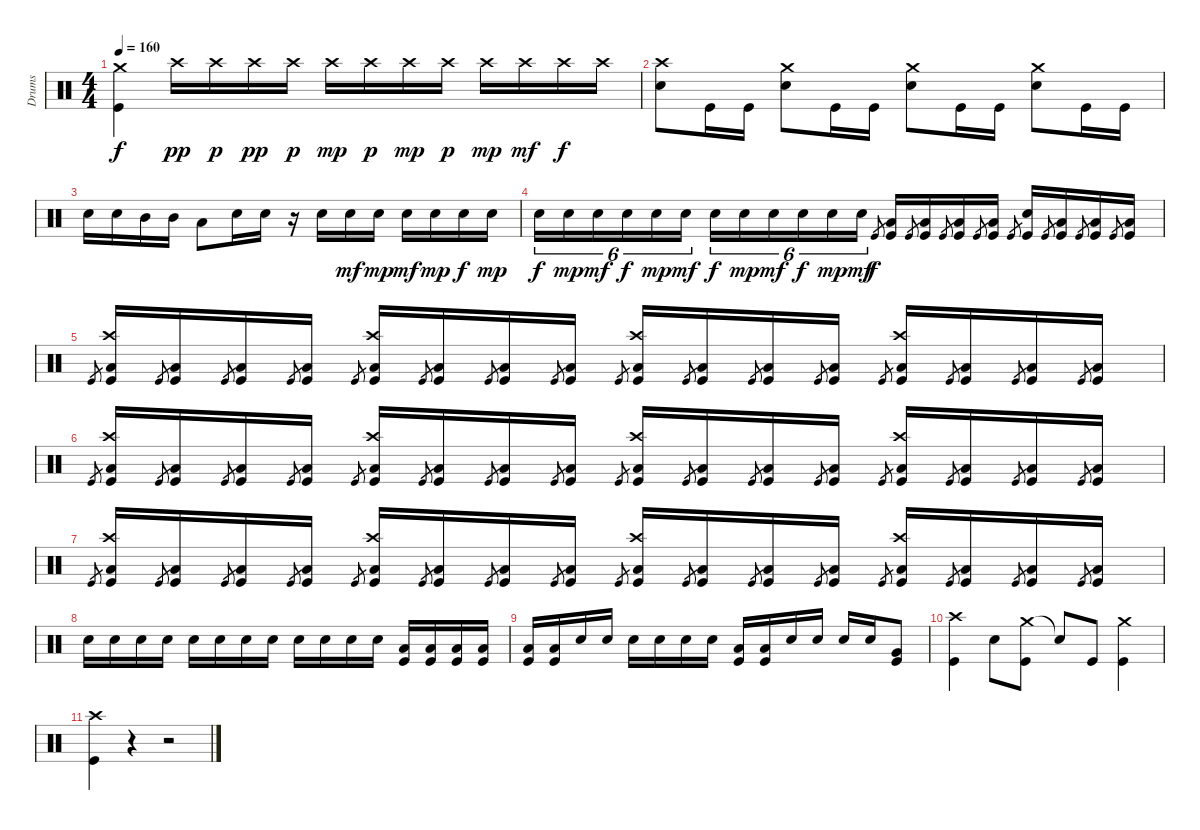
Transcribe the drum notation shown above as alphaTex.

\track ("Drums" "Drums") {instrument percussion}
\staff {score}
\articulation defaults
\ts (4 4)
\tempo 160
\clef neutral
\ks c
("Crash medium (hit)" "Kick (hit)").4{dy f} "Crash high (hit)".16{dy pp} "Crash high (hit)".16{dy p} "Crash high (hit)".16{dy pp} "Crash high (hit)".16{dy p} "Crash high (hit)".16{dy mp} "Crash high (hit)".16{dy p} "Crash high (hit)".16{dy mp} "Crash high (hit)".16{dy p} "Crash high (hit)".16{dy mp} "Crash high (hit)".16{dy mf} "Crash high (hit)".16{dy f} "Crash high (hit)".16 |
("Crash high (hit)" "Electric Snare (hit)").8 "Kick (hit)".16 "Kick (hit)".16 ("Crash medium (hit)" "Electric Snare (hit)").8 "Kick (hit)".16 "Kick (hit)".16 ("Crash medium (hit)" "Electric Snare (hit)").8 "Kick (hit)".16 "Kick (hit)".16 ("Crash medium (hit)" "Electric Snare (hit)").8 "Kick (hit)".16 "Kick (hit)".16 |
"Electric Snare (hit)".16 "Electric Snare (hit)".16 "Mid Tom (hit)".16 "Mid Tom (hit)".16 "Low Tom (hit)".8 "Electric Snare (hit)".16 "Electric Snare (hit)".16 r.16 "Electric Snare (hit)".16 "Electric Snare (hit)".16{dy mf} "Electric Snare (hit)".16{dy mp} "Electric Snare (hit)".16{dy mf} "Electric Snare (hit)".16{dy mp} "Electric Snare (hit)".16{dy f} "Electric Snare (hit)".16{dy mp} |
"Electric Snare (hit)".16{tu (6 4) dy f} "Electric Snare (hit)".16{tu (6 4) dy mp} "Electric Snare (hit)".16{tu (6 4) dy mf} "Electric Snare (hit)".16{tu (6 4) dy f} "Electric Snare (hit)".16{tu (6 4) dy mp} "Electric Snare (hit)".16{tu (6 4) dy mf} "Electric Snare (hit)".16{tu (6 4) dy f} "Electric Snare (hit)".16{tu (6 4) dy mp} "Electric Snare (hit)".16{tu (6 4) dy mf} "Electric Snare (hit)".16{tu (6 4) dy f} "Electric Snare (hit)".16{tu (6 4) dy mp} "Electric Snare (hit)".16{tu (6 4) dy mf} "Kick (hit)".8{gr dy f} ("Low Tom (hit)" "Kick (hit)").16 "Kick (hit)".8{gr} ("Low Tom (hit)" "Kick (hit)").16 "Kick (hit)".8{gr} ("Low Tom (hit)" "Kick (hit)").16 "Kick (hit)".8{gr} ("Low Tom (hit)" "Kick (hit)").16 "Kick (hit)".8{gr} ("Electric Snare (hit)" "Kick (hit)").16 "Kick (hit)".8{gr} ("Low Tom (hit)" "Kick (hit)").16 "Kick (hit)".8{gr} ("Low Tom (hit)" "Kick (hit)").16 "Kick (hit)".8{gr} ("Low Tom (hit)" "Kick (hit)").16 |
"Kick (hit)".8{gr} ("Crash high (hit)" "Low Tom (hit)" "Kick (hit)").16 "Kick (hit)".8{gr} ("Low Tom (hit)" "Kick (hit)").16 "Kick (hit)".8{gr} ("Low Tom (hit)" "Kick (hit)").16 "Kick (hit)".8{gr} ("Low Tom (hit)" "Kick (hit)").16 "Kick (hit)".8{gr} ("Crash high (hit)" "Low Tom (hit)" "Kick (hit)").16 "Kick (hit)".8{gr} ("Low Tom (hit)" "Kick (hit)").16 "Kick (hit)".8{gr} ("Low Tom (hit)" "Kick (hit)").16 "Kick (hit)".8{gr} ("Low Tom (hit)" "Kick (hit)").16 "Kick (hit)".8{gr} ("Crash high (hit)" "Low Tom (hit)" "Kick (hit)").16 "Kick (hit)".8{gr} ("Low Tom (hit)" "Kick (hit)").16 "Kick (hit)".8{gr} ("Low Tom (hit)" "Kick (hit)").16 "Kick (hit)".8{gr} ("Low Tom (hit)" "Kick (hit)").16 "Kick (hit)".8{gr} ("Crash high (hit)" "Low Tom (hit)" "Kick (hit)").16 "Kick (hit)".8{gr} ("Low Tom (hit)" "Kick (hit)").16 "Kick (hit)".8{gr} ("Low Tom (hit)" "Kick (hit)").16 "Kick (hit)".8{gr} ("Low Tom (hit)" "Kick (hit)").16 |
"Kick (hit)".8{gr} ("Crash high (hit)" "Low Tom (hit)" "Kick (hit)").16 "Kick (hit)".8{gr} ("Low Tom (hit)" "Kick (hit)").16 "Kick (hit)".8{gr} ("Low Tom (hit)" "Kick (hit)").16 "Kick (hit)".8{gr} ("Low Tom (hit)" "Kick (hit)").16 "Kick (hit)".8{gr} ("Crash high (hit)" "Low Tom (hit)" "Kick (hit)").16 "Kick (hit)".8{gr} ("Low Tom (hit)" "Kick (hit)").16 "Kick (hit)".8{gr} ("Low Tom (hit)" "Kick (hit)").16 "Kick (hit)".8{gr} ("Low Tom (hit)" "Kick (hit)").16 "Kick (hit)".8{gr} ("Crash high (hit)" "Low Tom (hit)" "Kick (hit)").16 "Kick (hit)".8{gr} ("Low Tom (hit)" "Kick (hit)").16 "Kick (hit)".8{gr} ("Low Tom (hit)" "Kick (hit)").16 "Kick (hit)".8{gr} ("Low Tom (hit)" "Kick (hit)").16 "Kick (hit)".8{gr} ("Crash high (hit)" "Low Tom (hit)" "Kick (hit)").16 "Kick (hit)".8{gr} ("Low Tom (hit)" "Kick (hit)").16 "Kick (hit)".8{gr} ("Low Tom (hit)" "Kick (hit)").16 "Kick (hit)".8{gr} ("Low Tom (hit)" "Kick (hit)").16 |
"Kick (hit)".8{gr} ("Crash high (hit)" "Low Tom (hit)" "Kick (hit)").16 "Kick (hit)".8{gr} ("Low Tom (hit)" "Kick (hit)").16 "Kick (hit)".8{gr} ("Low Tom (hit)" "Kick (hit)").16 "Kick (hit)".8{gr} ("Low Tom (hit)" "Kick (hit)").16 "Kick (hit)".8{gr} ("Crash high (hit)" "Low Tom (hit)" "Kick (hit)").16 "Kick (hit)".8{gr} ("Low Tom (hit)" "Kick (hit)").16 "Kick (hit)".8{gr} ("Low Tom (hit)" "Kick (hit)").16 "Kick (hit)".8{gr} ("Low Tom (hit)" "Kick (hit)").16 "Kick (hit)".8{gr} ("Crash high (hit)" "Low Tom (hit)" "Kick (hit)").16 "Kick (hit)".8{gr} ("Low Tom (hit)" "Kick (hit)").16 "Kick (hit)".8{gr} ("Low Tom (hit)" "Kick (hit)").16 "Kick (hit)".8{gr} ("Low Tom (hit)" "Kick (hit)").16 "Kick (hit)".8{gr} ("Crash high (hit)" "Low Tom (hit)" "Kick (hit)").16 "Kick (hit)".8{gr} ("Low Tom (hit)" "Kick (hit)").16 "Kick (hit)".8{gr} ("Low Tom (hit)" "Kick (hit)").16 "Kick (hit)".8{gr} ("Low Tom (hit)" "Kick (hit)").16 |
"Electric Snare (hit)".16 "Electric Snare (hit)".16 "Electric Snare (hit)".16 "Electric Snare (hit)".16 "Electric Snare (hit)".16 "Electric Snare (hit)".16 "Electric Snare (hit)".16 "Electric Snare (hit)".16 "Electric Snare (hit)".16 "Electric Snare (hit)".16 "Electric Snare (hit)".16 "Electric Snare (hit)".16 ("Low Tom (hit)" "Kick (hit)").16 ("Low Tom (hit)" "Kick (hit)").16 ("Low Tom (hit)" "Kick (hit)").16 ("Low Tom (hit)" "Kick (hit)").16 |
("Low Tom (hit)" "Kick (hit)").16 ("Low Tom (hit)" "Kick (hit)").16 "Electric Snare (hit)".16 "Electric Snare (hit)".16 "Electric Snare (hit)".16 "Electric Snare (hit)".16 "Electric Snare (hit)".16 "Electric Snare (hit)".16 ("Low Tom (hit)" "Kick (hit)").16 ("Low Tom (hit)" "Kick (hit)").16 "Electric Snare (hit)".16 "Electric Snare (hit)".16 "Electric Snare (hit)".16 "Electric Snare (hit)".16 ("Very Low Tom (hit)" "Kick (hit)").8 |
("Crash high (hit)" "Kick (hit)").4 "Electric Snare (hit)".8 ("Crash medium (hit)" "Kick (hit)").8 "Snare (hit)"{t}.8 "Kick (hit)".8 ("Crash medium (hit)" "Kick (hit)").4 |
("Crash high (hit)" "Kick (hit)").4 r.4 r.2
